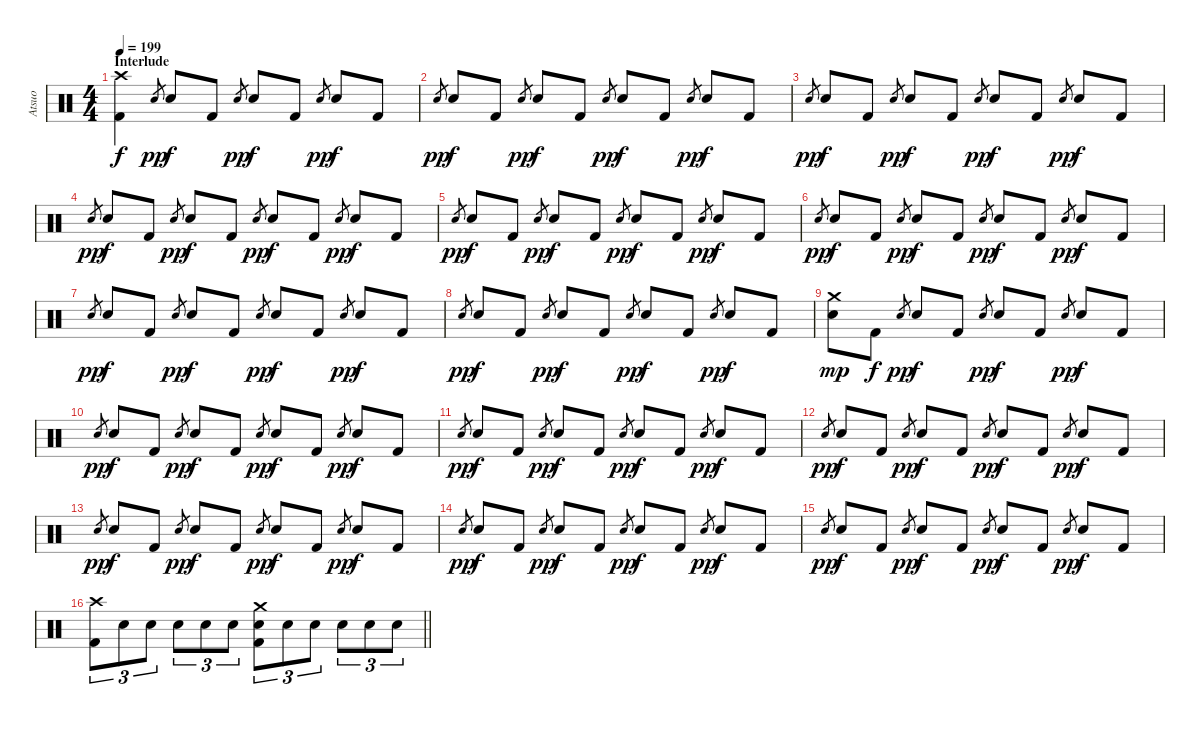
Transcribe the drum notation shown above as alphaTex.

\track ("Atsuo" "Atsuo") {instrument percussion}
\staff {score}
\articulation defaults
\ts (4 4)
\section ("" "Interlude")
\tempo 199
\clef neutral
\ks c
("Crash high (hit)" "Kick (hit) 2").4{dy f} "Electric Snare (hit)".8{gr dy pp} "Electric Snare (hit)".8{dy f} "Kick (hit) 2".8 "Electric Snare (hit)".8{gr dy pp} "Electric Snare (hit)".8{dy f} "Kick (hit) 2".8 "Electric Snare (hit)".8{gr dy pp} "Electric Snare (hit)".8{dy f} "Kick (hit) 2".8 |
"Electric Snare (hit)".8{gr dy pp} "Electric Snare (hit)".8{dy f} "Kick (hit) 2".8 "Electric Snare (hit)".8{gr dy pp} "Electric Snare (hit)".8{dy f} "Kick (hit) 2".8 "Electric Snare (hit)".8{gr dy pp} "Electric Snare (hit)".8{dy f} "Kick (hit) 2".8 "Electric Snare (hit)".8{gr dy pp} "Electric Snare (hit)".8{dy f} "Kick (hit) 2".8 |
"Electric Snare (hit)".8{gr dy pp} "Electric Snare (hit)".8{dy f} "Kick (hit) 2".8 "Electric Snare (hit)".8{gr dy pp} "Electric Snare (hit)".8{dy f} "Kick (hit) 2".8 "Electric Snare (hit)".8{gr dy pp} "Electric Snare (hit)".8{dy f} "Kick (hit) 2".8 "Electric Snare (hit)".8{gr dy pp} "Electric Snare (hit)".8{dy f} "Kick (hit) 2".8 |
"Electric Snare (hit)".8{gr dy pp} "Electric Snare (hit)".8{dy f} "Kick (hit) 2".8 "Electric Snare (hit)".8{gr dy pp} "Electric Snare (hit)".8{dy f} "Kick (hit) 2".8 "Electric Snare (hit)".8{gr dy pp} "Electric Snare (hit)".8{dy f} "Kick (hit) 2".8 "Electric Snare (hit)".8{gr dy pp} "Electric Snare (hit)".8{dy f} "Kick (hit) 2".8 |
"Electric Snare (hit)".8{gr dy pp} "Electric Snare (hit)".8{dy f} "Kick (hit) 2".8 "Electric Snare (hit)".8{gr dy pp} "Electric Snare (hit)".8{dy f} "Kick (hit) 2".8 "Electric Snare (hit)".8{gr dy pp} "Electric Snare (hit)".8{dy f} "Kick (hit) 2".8 "Electric Snare (hit)".8{gr dy pp} "Electric Snare (hit)".8{dy f} "Kick (hit) 2".8 |
"Electric Snare (hit)".8{gr dy pp} "Electric Snare (hit)".8{dy f} "Kick (hit) 2".8 "Electric Snare (hit)".8{gr dy pp} "Electric Snare (hit)".8{dy f} "Kick (hit) 2".8 "Electric Snare (hit)".8{gr dy pp} "Electric Snare (hit)".8{dy f} "Kick (hit) 2".8 "Electric Snare (hit)".8{gr dy pp} "Electric Snare (hit)".8{dy f} "Kick (hit) 2".8 |
"Electric Snare (hit)".8{gr dy pp} "Electric Snare (hit)".8{dy f} "Kick (hit) 2".8 "Electric Snare (hit)".8{gr dy pp} "Electric Snare (hit)".8{dy f} "Kick (hit) 2".8 "Electric Snare (hit)".8{gr dy pp} "Electric Snare (hit)".8{dy f} "Kick (hit) 2".8 "Electric Snare (hit)".8{gr dy pp} "Electric Snare (hit)".8{dy f} "Kick (hit) 2".8 |
"Electric Snare (hit)".8{gr dy pp} "Electric Snare (hit)".8{dy f} "Kick (hit) 2".8 "Electric Snare (hit)".8{gr dy pp} "Electric Snare (hit)".8{dy f} "Kick (hit) 2".8 "Electric Snare (hit)".8{gr dy pp} "Electric Snare (hit)".8{dy f} "Kick (hit) 2".8 "Electric Snare (hit)".8{gr dy pp} "Electric Snare (hit)".8{dy f} "Kick (hit) 2".8 |
("Crash medium (hit)" "Electric Snare (hit)").8{dy mp} "Kick (hit) 2".8{dy f} "Electric Snare (hit)".8{gr dy pp} "Electric Snare (hit)".8{dy f} "Kick (hit) 2".8 "Electric Snare (hit)".8{gr dy pp} "Electric Snare (hit)".8{dy f} "Kick (hit) 2".8 "Electric Snare (hit)".8{gr dy pp} "Electric Snare (hit)".8{dy f} "Kick (hit) 2".8 |
"Electric Snare (hit)".8{gr dy pp} "Electric Snare (hit)".8{dy f} "Kick (hit) 2".8 "Electric Snare (hit)".8{gr dy pp} "Electric Snare (hit)".8{dy f} "Kick (hit) 2".8 "Electric Snare (hit)".8{gr dy pp} "Electric Snare (hit)".8{dy f} "Kick (hit) 2".8 "Electric Snare (hit)".8{gr dy pp} "Electric Snare (hit)".8{dy f} "Kick (hit) 2".8 |
"Electric Snare (hit)".8{gr dy pp} "Electric Snare (hit)".8{dy f} "Kick (hit) 2".8 "Electric Snare (hit)".8{gr dy pp} "Electric Snare (hit)".8{dy f} "Kick (hit) 2".8 "Electric Snare (hit)".8{gr dy pp} "Electric Snare (hit)".8{dy f} "Kick (hit) 2".8 "Electric Snare (hit)".8{gr dy pp} "Electric Snare (hit)".8{dy f} "Kick (hit) 2".8 |
"Electric Snare (hit)".8{gr dy pp} "Electric Snare (hit)".8{dy f} "Kick (hit) 2".8 "Electric Snare (hit)".8{gr dy pp} "Electric Snare (hit)".8{dy f} "Kick (hit) 2".8 "Electric Snare (hit)".8{gr dy pp} "Electric Snare (hit)".8{dy f} "Kick (hit) 2".8 "Electric Snare (hit)".8{gr dy pp} "Electric Snare (hit)".8{dy f} "Kick (hit) 2".8 |
"Electric Snare (hit)".8{gr dy pp} "Electric Snare (hit)".8{dy f} "Kick (hit) 2".8 "Electric Snare (hit)".8{gr dy pp} "Electric Snare (hit)".8{dy f} "Kick (hit) 2".8 "Electric Snare (hit)".8{gr dy pp} "Electric Snare (hit)".8{dy f} "Kick (hit) 2".8 "Electric Snare (hit)".8{gr dy pp} "Electric Snare (hit)".8{dy f} "Kick (hit) 2".8 |
"Electric Snare (hit)".8{gr dy pp} "Electric Snare (hit)".8{dy f} "Kick (hit) 2".8 "Electric Snare (hit)".8{gr dy pp} "Electric Snare (hit)".8{dy f} "Kick (hit) 2".8 "Electric Snare (hit)".8{gr dy pp} "Electric Snare (hit)".8{dy f} "Kick (hit) 2".8 "Electric Snare (hit)".8{gr dy pp} "Electric Snare (hit)".8{dy f} "Kick (hit) 2".8 |
"Electric Snare (hit)".8{gr dy pp} "Electric Snare (hit)".8{dy f} "Kick (hit) 2".8 "Electric Snare (hit)".8{gr dy pp} "Electric Snare (hit)".8{dy f} "Kick (hit) 2".8 "Electric Snare (hit)".8{gr dy pp} "Electric Snare (hit)".8{dy f} "Kick (hit) 2".8 "Electric Snare (hit)".8{gr dy pp} "Electric Snare (hit)".8{dy f} "Kick (hit) 2".8 |
\barLineRight lightlight
("Crash high (hit)" "Kick (hit) 2").8{tu (3 2)} "Electric Snare (hit)".8{tu (3 2)} "Electric Snare (hit)".8{tu (3 2)} "Electric Snare (hit)".8{tu (3 2)} "Electric Snare (hit)".8{tu (3 2)} "Electric Snare (hit)".8{tu (3 2)} ("Crash medium (hit)" "Electric Snare (hit)" "Kick (hit) 2").8{tu (3 2)} "Electric Snare (hit)".8{tu (3 2)} "Electric Snare (hit)".8{tu (3 2)} "Electric Snare (hit)".8{tu (3 2)} "Electric Snare (hit)".8{tu (3 2)} "Electric Snare (hit)".8{tu (3 2)}
